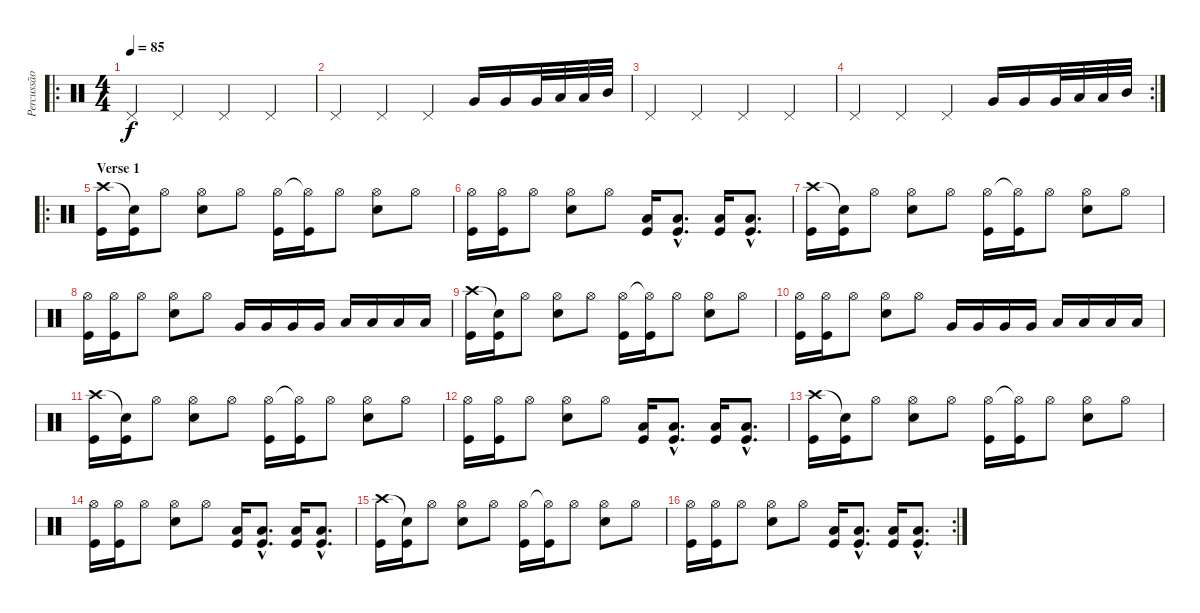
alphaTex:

\track ("Percussão" "Percussão") {instrument percussion}
\staff {score}
\articulation defaults
\ro
\ts (4 4)
\tempo 85
\clef neutral
\ks c "Pedal Hi-Hat (hit)".4{dy f} "Pedal Hi-Hat (hit)".4 "Pedal Hi-Hat (hit)".4 "Pedal Hi-Hat (hit)".4
|
"Pedal Hi-Hat (hit)".4 "Pedal Hi-Hat (hit)".4 "Pedal Hi-Hat (hit)".4 "Very Low Tom (hit)".16 "Very Low Tom (hit)".16 "Very Low Tom (hit)".32 "Low Floor Tom (hit)".32 "Low Tom (hit)".32 "Mid Tom (hit)".32 |
"Pedal Hi-Hat (hit)".4 "Pedal Hi-Hat (hit)".4 "Pedal Hi-Hat (hit)".4 "Pedal Hi-Hat (hit)".4 |
\rc 2 "Pedal Hi-Hat (hit)".4 "Pedal Hi-Hat (hit)".4 "Pedal Hi-Hat (hit)".4 "Very Low Tom (hit)".16 "Very Low Tom (hit)".16 "Very Low Tom (hit)".32 "Low Floor Tom (hit)".32 "Low Tom (hit)".32 "Mid Tom (hit)".32
|
\ro
\section ("" "Verse 1")
("Crash high (hit)" "Kick (hit)").16 ("Snare (hit)"{t} "Kick (hit)").16 "Hi-Hat (open)".8 ("Hi-Hat (open)" "Snare (hit) 2").8 "Hi-Hat (open)".8 ("Hi-Hat (open)" "Kick (hit)").16 ("Hi-Hat (open)"{t} "Kick (hit)").16 "Hi-Hat (open)".8 ("Hi-Hat (open)" "Snare (hit) 2").8 "Hi-Hat (open)".8 |
("Hi-Hat (open)" "Kick (hit)").16 ("Hi-Hat (open)" "Kick (hit)").16 "Hi-Hat (open)".8 ("Hi-Hat (open)" "Snare (hit) 2").8 "Hi-Hat (open)".8 ("Low Floor Tom (hit)" "Kick (hit)").16{bd 480} ("Low Floor Tom (hit)"{hac} "Kick (hit)"{hac}).8{d bd 480} ("Low Floor Tom (hit)" "Kick (hit)").16{bd 480} ("Low Floor Tom (hit)"{hac} "Kick (hit)"{hac}).8{d bd 480} |
("Crash high (hit)" "Kick (hit)").16 ("Snare (hit)"{t} "Kick (hit)").16 "Hi-Hat (open)".8 ("Hi-Hat (open)" "Snare (hit) 2").8 "Hi-Hat (open)".8 ("Hi-Hat (open)" "Kick (hit)").16 ("Hi-Hat (open)"{t} "Kick (hit)").16 "Hi-Hat (open)".8 ("Hi-Hat (open)" "Snare (hit) 2").8 "Hi-Hat (open)".8 |
("Hi-Hat (open)" "Kick (hit)").16 ("Hi-Hat (open)" "Kick (hit)").16 "Hi-Hat (open)".8 ("Hi-Hat (open)" "Snare (hit) 2").8 "Hi-Hat (open)".8 "Very Low Tom (hit)".16 "Very Low Tom (hit)".16 "Very Low Tom (hit)".16 "Very Low Tom (hit)".16 "Low Floor Tom (hit)".16 "Low Floor Tom (hit)".16 "Low Floor Tom (hit)".16 "Low Floor Tom (hit)".16 |
("Crash high (hit)" "Kick (hit)").16 ("Snare (hit)"{t} "Kick (hit)").16 "Hi-Hat (open)".8 ("Hi-Hat (open)" "Snare (hit) 2").8 "Hi-Hat (open)".8 ("Hi-Hat (open)" "Kick (hit)").16 ("Hi-Hat (open)"{t} "Kick (hit)").16 "Hi-Hat (open)".8 ("Hi-Hat (open)" "Snare (hit) 2").8 "Hi-Hat (open)".8 |
("Hi-Hat (open)" "Kick (hit)").16 ("Hi-Hat (open)" "Kick (hit)").16 "Hi-Hat (open)".8 ("Hi-Hat (open)" "Snare (hit) 2").8 "Hi-Hat (open)".8 "Very Low Tom (hit)".16 "Very Low Tom (hit)".16 "Very Low Tom (hit)".16 "Very Low Tom (hit)".16 "Low Floor Tom (hit)".16 "Low Floor Tom (hit)".16 "Low Floor Tom (hit)".16 "Low Floor Tom (hit)".16 |
("Crash high (hit)" "Kick (hit)").16 ("Snare (hit)"{t} "Kick (hit)").16 "Hi-Hat (open)".8 ("Hi-Hat (open)" "Snare (hit) 2").8 "Hi-Hat (open)".8 ("Hi-Hat (open)" "Kick (hit)").16 ("Hi-Hat (open)"{t} "Kick (hit)").16 "Hi-Hat (open)".8 ("Hi-Hat (open)" "Snare (hit) 2").8 "Hi-Hat (open)".8 |
("Hi-Hat (open)" "Kick (hit)").16 ("Hi-Hat (open)" "Kick (hit)").16 "Hi-Hat (open)".8 ("Hi-Hat (open)" "Snare (hit) 2").8 "Hi-Hat (open)".8 ("Low Floor Tom (hit)" "Kick (hit)").16{bd 480} ("Low Floor Tom (hit)"{hac} "Kick (hit)"{hac}).8{d bd 480} ("Low Floor Tom (hit)" "Kick (hit)").16{bd 480} ("Low Floor Tom (hit)"{hac} "Kick (hit)"{hac}).8{d bd 480} |
("Crash high (hit)" "Kick (hit)").16 ("Snare (hit)"{t} "Kick (hit)").16 "Hi-Hat (open)".8 ("Hi-Hat (open)" "Snare (hit) 2").8 "Hi-Hat (open)".8 ("Hi-Hat (open)" "Kick (hit)").16 ("Hi-Hat (open)"{t} "Kick (hit)").16 "Hi-Hat (open)".8 ("Hi-Hat (open)" "Snare (hit) 2").8 "Hi-Hat (open)".8 |
("Hi-Hat (open)" "Kick (hit)").16 ("Hi-Hat (open)" "Kick (hit)").16 "Hi-Hat (open)".8 ("Hi-Hat (open)" "Snare (hit) 2").8 "Hi-Hat (open)".8 ("Low Floor Tom (hit)" "Kick (hit)").16{bd 480} ("Low Floor Tom (hit)"{hac} "Kick (hit)"{hac}).8{d bd 480} ("Low Floor Tom (hit)" "Kick (hit)").16{bd 480} ("Low Floor Tom (hit)"{hac} "Kick (hit)"{hac}).8{d bd 480} |
("Crash high (hit)" "Kick (hit)").16 ("Snare (hit)"{t} "Kick (hit)").16 "Hi-Hat (open)".8 ("Hi-Hat (open)" "Snare (hit) 2").8 "Hi-Hat (open)".8 ("Hi-Hat (open)" "Kick (hit)").16 ("Hi-Hat (open)"{t} "Kick (hit)").16 "Hi-Hat (open)".8 ("Hi-Hat (open)" "Snare (hit) 2").8 "Hi-Hat (open)".8 |
\rc 2
("Hi-Hat (open)" "Kick (hit)").16 ("Hi-Hat (open)" "Kick (hit)").16 "Hi-Hat (open)".8 ("Hi-Hat (open)" "Snare (hit) 2").8 "Hi-Hat (open)".8 ("Low Floor Tom (hit)" "Kick (hit)").16{bd 480} ("Low Floor Tom (hit)"{hac} "Kick (hit)"{hac}).8{d bd 480} ("Low Floor Tom (hit)" "Kick (hit)").16{bd 480} ("Low Floor Tom (hit)"{hac} "Kick (hit)"{hac}).8{d bd 480}
